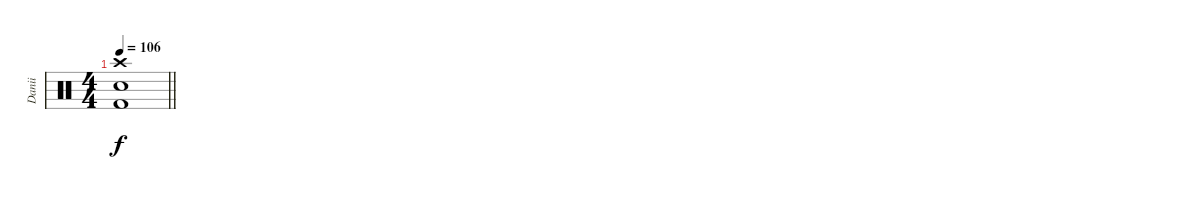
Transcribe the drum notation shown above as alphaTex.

\track ("Danii" "Danii") {instrument percussion}
\staff {score}
\articulation defaults
\ts (4 4)
\tempo 106
\clef neutral
\barLineRight lightlight
\ks c
("Snare (hit) 2" "Kick (hit) 2" "Crash high (hit)").1{dy f}
